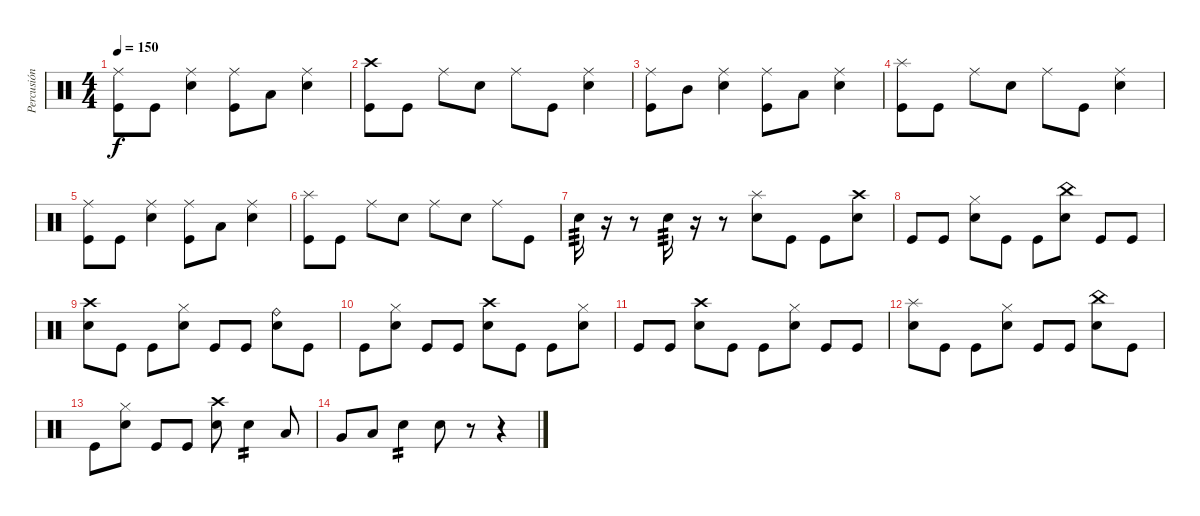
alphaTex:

\track ("Percusión" "Percusión") {instrument percussion}
\staff {score}
\articulation defaults
\ts (4 4)
\tempo 150
\clef neutral
\ks c
("Ride (middle)" "Kick (hit)").8{dy f} "Kick (hit)".8 ("Ride (middle)" "Snare (hit) 2").4 ("Ride (middle)" "Kick (hit)").8 "Low Tom (hit)".8 ("Ride (middle)" "Snare (hit) 2").4 |
("Crash high (hit)" "Kick (hit)").8 "Kick (hit)".8 "Ride (middle)".8 "Snare (hit) 2".8 "Ride (middle)".8 "Kick (hit)".8 ("Ride (middle)" "Snare (hit) 2").4 |
("Ride (middle)" "Kick (hit)").8 "Mid Tom (hit)".8 ("Ride (middle)" "Snare (hit) 2").4 ("Ride (middle)" "Kick (hit)").8 "Low Tom (hit)".8 ("Ride (middle)" "Snare (hit) 2").4 |
("Splash (hit)" "Kick (hit)").8 "Kick (hit)".8 "Ride (middle)".8 "Snare (hit) 2".8 "Ride (middle)".8 "Kick (hit)".8 ("Ride (middle)" "Snare (hit) 2").4 |
("Ride (middle)" "Kick (hit)").8 "Kick (hit)".8 ("Ride (middle)" "Snare (hit) 2").4 ("Ride (middle)" "Kick (hit)").8 "Low Tom (hit)".8 ("Ride (middle)" "Snare (hit) 2").4 |
("Splash (hit)" "Kick (hit)").8 "Kick (hit)".8 "Ride (middle)".8 "Snare (hit) 2".8 "Ride (middle)".8 "Snare (hit) 2".8 "Ride (middle)".8 "Kick (hit)".8 |
"Snare (hit) 2".16{tp 3} r.16 r.8 "Snare (hit) 2".16{tp 3} r.16 r.8 ("Splash (hit)" "Snare (hit) 2").8 "Kick (hit)".8 "Kick (hit)".8 ("Crash high (hit)" "Snare (hit) 2").8 |
"Kick (hit)".8 "Kick (hit)".8 ("Hi-Hat (closed)" "Snare (hit) 2").8 "Kick (hit)".8 "Kick (hit)".8 ("China (hit)" "Snare (hit) 2").8 "Kick (hit)".8 "Kick (hit)".8 |
("Crash high (hit)" "Snare (hit) 2").8 "Kick (hit)".8 "Kick (hit)".8 ("Hi-Hat (closed)" "Snare (hit) 2").8 "Kick (hit)".8 "Kick (hit)".8 ("Ride (bell)" "Snare (hit) 2").8 "Kick (hit)".8 |
"Kick (hit)".8 ("Hi-Hat (closed)" "Snare (hit) 2").8 "Kick (hit)".8 "Kick (hit)".8 ("Crash high (hit)" "Snare (hit) 2").8 "Kick (hit)".8 "Kick (hit)".8 ("Hi-Hat (closed)" "Snare (hit) 2").8 |
"Kick (hit)".8 "Kick (hit)".8 ("Crash high (hit)" "Snare (hit) 2").8 "Kick (hit)".8 "Kick (hit)".8 ("Hi-Hat (closed)" "Snare (hit) 2").8 "Kick (hit)".8 "Kick (hit)".8 |
("Splash (hit)" "Snare (hit) 2").8 "Kick (hit)".8 "Kick (hit)".8 ("Hi-Hat (closed)" "Snare (hit) 2").8 "Kick (hit)".8 "Kick (hit)".8 ("China (hit)" "Snare (hit) 2").8 "Kick (hit)".8 |
"Kick (hit)".8 ("Hi-Hat (closed)" "Snare (hit) 2").8 "Kick (hit)".8 "Kick (hit)".8 ("Crash high (hit)" "Snare (hit) 2").8 "Snare (hit) 2".4{tp 2} "Low Tom (hit)".8 |
"Very Low Tom (hit)".8 "Low Floor Tom (hit)".8 "Snare (hit) 2".4{tp 2} "Snare (hit) 2".8 r.8 r.4
